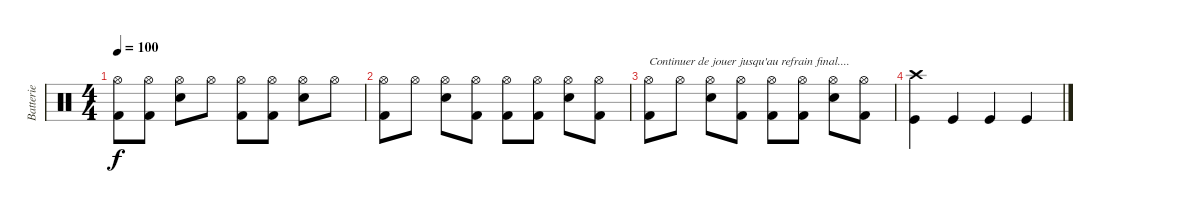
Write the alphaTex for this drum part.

\track ("Batterie" "Batterie") {instrument percussion}
\staff {score}
\articulation defaults
\ts (4 4)
\tempo 100
\clef neutral
\ks c
("Hi-Hat (open)" "Kick (hit) 2").8{dy f} ("Hi-Hat (open)" "Kick (hit) 2").8 ("Hi-Hat (open)" "Snare (hit) 2").8 "Hi-Hat (open)".8 ("Hi-Hat (open)" "Kick (hit) 2").8 ("Hi-Hat (open)" "Kick (hit) 2").8 ("Hi-Hat (open)" "Snare (hit) 2").8 "Hi-Hat (open)".8 |
("Hi-Hat (open)" "Kick (hit) 2").8 "Hi-Hat (open)".8 ("Hi-Hat (open)" "Snare (hit) 2").8 ("Hi-Hat (open)" "Kick (hit) 2").8 ("Hi-Hat (open)" "Kick (hit) 2").8 ("Hi-Hat (open)" "Kick (hit) 2").8 ("Hi-Hat (open)" "Snare (hit) 2").8 ("Hi-Hat (open)" "Kick (hit) 2").8 |
("Hi-Hat (open)" "Kick (hit) 2").8{txt "Continuer de jouer jusqu'au refrain final...."} "Hi-Hat (open)".8 ("Hi-Hat (open)" "Snare (hit) 2").8 ("Hi-Hat (open)" "Kick (hit) 2").8 ("Hi-Hat (open)" "Kick (hit) 2").8 ("Hi-Hat (open)" "Kick (hit) 2").8 ("Hi-Hat (open)" "Snare (hit) 2").8 ("Hi-Hat (open)" "Kick (hit) 2").8 |
("Crash high (hit)" "Kick (hit)").4 "Kick (hit)".4 "Kick (hit)".4 "Kick (hit)".4
